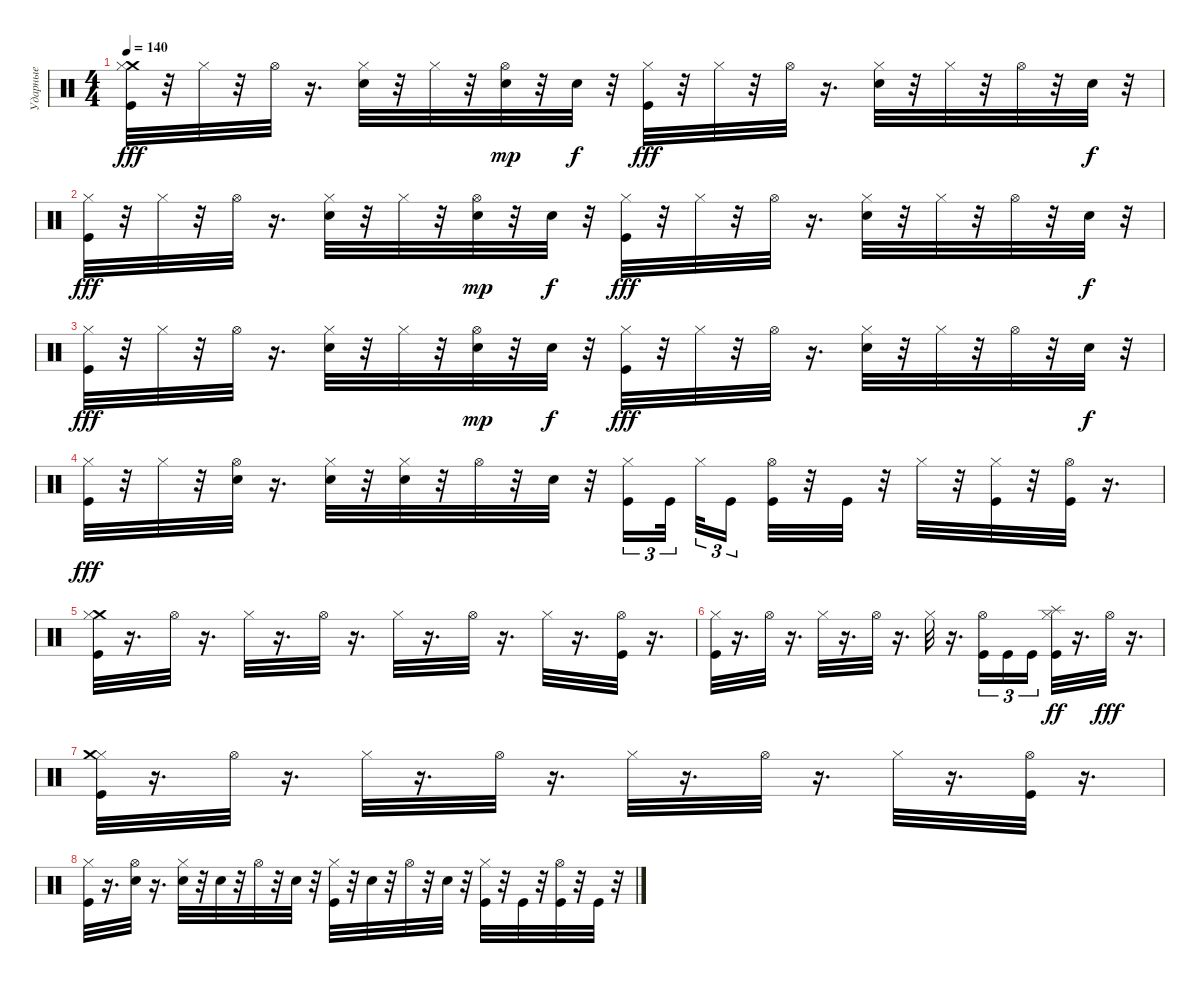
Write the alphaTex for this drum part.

\track ("Ударные" "Ударные") {instrument percussion}
\staff {score}
\articulation defaults
\ts (4 4)
\tempo 140
\clef neutral
\ks c
("Crash medium (hit)" "Kick (hit)" "Hi-Hat (closed)").32{dy fff} r.32 "Hi-Hat (closed)".32 r.32 "Hi-Hat (open)".32 r.16{d} ("Electric Snare (hit)" "Hi-Hat (closed)").32 r.32 "Hi-Hat (closed)".32 r.32 ("Hi-Hat (open)" "Electric Snare (hit)").32{dy mp} r.32 "Electric Snare (hit)".32{dy f} r.32 ("Kick (hit)" "Hi-Hat (closed)").32{dy fff} r.32 "Hi-Hat (closed)".32 r.32 "Hi-Hat (open)".32 r.16{d} ("Electric Snare (hit)" "Hi-Hat (closed)").32 r.32 "Hi-Hat (closed)".32 r.32 "Hi-Hat (open)".32 r.32 "Electric Snare (hit)".32{dy f} r.32 |
("Hi-Hat (closed)" "Kick (hit)").32{dy fff} r.32 "Hi-Hat (closed)".32 r.32 "Hi-Hat (open)".32 r.16{d} ("Electric Snare (hit)" "Hi-Hat (closed)").32 r.32 "Hi-Hat (closed)".32 r.32 ("Hi-Hat (open)" "Electric Snare (hit)").32{dy mp} r.32 "Electric Snare (hit)".32{dy f} r.32 ("Kick (hit)" "Hi-Hat (closed)").32{dy fff} r.32 "Hi-Hat (closed)".32 r.32 "Hi-Hat (open)".32 r.16{d} ("Electric Snare (hit)" "Hi-Hat (closed)").32 r.32 "Hi-Hat (closed)".32 r.32 "Hi-Hat (open)".32 r.32 "Electric Snare (hit)".32{dy f} r.32 |
("Hi-Hat (closed)" "Kick (hit)").32{dy fff} r.32 "Hi-Hat (closed)".32 r.32 "Hi-Hat (open)".32 r.16{d} ("Electric Snare (hit)" "Hi-Hat (closed)").32 r.32 "Hi-Hat (closed)".32 r.32 ("Hi-Hat (open)" "Electric Snare (hit)").32{dy mp} r.32 "Electric Snare (hit)".32{dy f} r.32 ("Kick (hit)" "Hi-Hat (closed)").32{dy fff} r.32 "Hi-Hat (closed)".32 r.32 "Hi-Hat (open)".32 r.16{d} ("Electric Snare (hit)" "Hi-Hat (closed)").32 r.32 "Hi-Hat (closed)".32 r.32 "Hi-Hat (open)".32 r.32 "Electric Snare (hit)".32{dy f} r.32 |
("Hi-Hat (closed)" "Kick (hit)").32{dy fff} r.32 "Hi-Hat (closed)".32 r.32 ("Hi-Hat (open)" "Electric Snare (hit)").32 r.16{d} ("Hi-Hat (closed)" "Electric Snare (hit)").32 r.32 ("Hi-Hat (closed)" "Electric Snare (hit)").32 r.32 "Hi-Hat (open)".32 r.32 "Electric Snare (hit)".32 r.32 ("Hi-Hat (closed)" "Kick (hit)").16{tu (3 2)} "Kick (hit)".32{tu (3 2) beam splitsecondary} "Hi-Hat (closed)".32{tu (3 2)} "Kick (hit)".16{tu (3 2) beam splitsecondary} ("Hi-Hat (open)" "Kick (hit)").32 r.32 "Kick (hit)".32 r.32 "Hi-Hat (closed)".32 r.32 ("Hi-Hat (closed)" "Kick (hit)").32 r.32 ("Hi-Hat (open)" "Kick (hit)").32 r.16{d} |
("Crash medium (hit)" "Kick (hit)" "Hi-Hat (closed)").32 r.16{d} "Hi-Hat (open)".32 r.16{d} "Hi-Hat (closed)".32 r.16{d} "Hi-Hat (open)".32 r.16{d} "Hi-Hat (closed)".32 r.16{d} "Hi-Hat (open)".32 r.16{d} "Hi-Hat (closed)".32 r.16{d} ("Kick (hit)" "Hi-Hat (open)").32 r.16{d} |
("Kick (hit)" "Hi-Hat (closed)").32 r.16{d} "Hi-Hat (open)".32 r.16{d} "Hi-Hat (closed)".32 r.16{d} "Hi-Hat (open)".32 r.16{d} "Hi-Hat (closed)".32 r.16{d} ("Hi-Hat (open)" "Kick (hit)").16{tu (3 2)} "Kick (hit)".16{tu (3 2)} "Kick (hit)".16{tu (3 2)} ("Hi-Hat (closed)" "Kick (hit)" "Splash (hit)").32{dy ff} r.16{d} "Hi-Hat (open)".32{dy fff} r.16{d} |
("Hi-Hat (closed)" "Kick (hit)" "Crash medium (hit)").32 r.16{d} "Hi-Hat (open)".32 r.16{d} "Hi-Hat (closed)".32 r.16{d} "Hi-Hat (open)".32 r.16{d} "Hi-Hat (closed)".32 r.16{d} "Hi-Hat (open)".32 r.16{d} "Hi-Hat (closed)".32 r.16{d} ("Hi-Hat (open)" "Kick (hit)").32 r.16{d} |
("Hi-Hat (closed)" "Kick (hit)").32 r.16{d} ("Hi-Hat (open)" "Electric Snare (hit)").32 r.16{d} ("Hi-Hat (closed)" "Electric Snare (hit)").32 r.32 "Electric Snare (hit)".32 r.32 "Hi-Hat (open)".32 r.32 "Electric Snare (hit)".32 r.32 ("Hi-Hat (closed)" "Kick (hit)").32 r.32 "Electric Snare (hit)".32 r.32 "Hi-Hat (open)".32 r.32 "Electric Snare (hit)".32 r.32 ("Hi-Hat (closed)" "Kick (hit)").32 r.32 "Kick (hit)".32 r.32 ("Hi-Hat (open)" "Kick (hit)").32 r.32 "Kick (hit)".32 r.32
